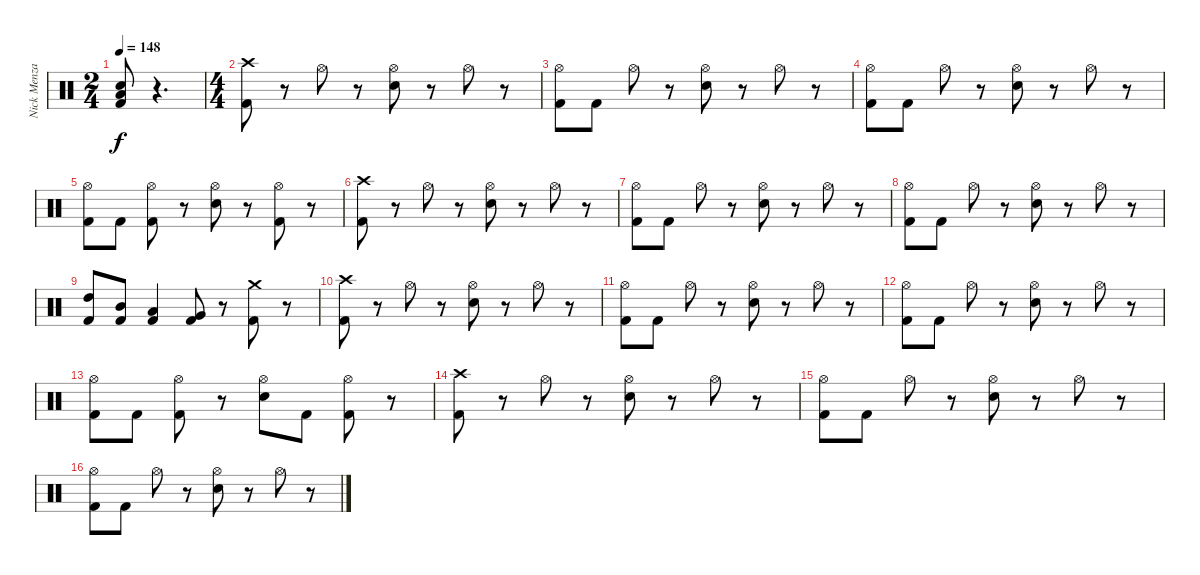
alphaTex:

\track ("Nick Menza" "Nick Menza") {instrument percussion}
\staff {score}
\articulation defaults
\ts (2 4)
\tempo 148
\clef neutral
\ks c
("Low Tom (hit)" "Electric Snare (hit)" "Kick (hit) 2").8{dy f} r.4{d} |
\ts (4 4)
("Crash high (hit)" "Kick (hit) 2").8 r.8 "Hi-Hat (open)".8 r.8 ("Hi-Hat (open)" "Electric Snare (hit)").8 r.8 "Hi-Hat (open)".8 r.8 |
("Hi-Hat (open)" "Kick (hit) 2").8 "Kick (hit) 2".8 "Hi-Hat (open)".8 r.8 ("Hi-Hat (open)" "Electric Snare (hit)").8 r.8 "Hi-Hat (open)".8 r.8 |
("Hi-Hat (open)" "Kick (hit) 2").8 "Kick (hit) 2".8 "Hi-Hat (open)".8 r.8 ("Hi-Hat (open)" "Electric Snare (hit)").8 r.8 "Hi-Hat (open)".8 r.8 |
("Hi-Hat (open)" "Kick (hit) 2").8 "Kick (hit) 2".8 ("Hi-Hat (open)" "Kick (hit) 2").8 r.8 ("Hi-Hat (open)" "Electric Snare (hit)").8 r.8 ("Hi-Hat (open)" "Kick (hit) 2").8 r.8 |
("Crash high (hit)" "Kick (hit) 2").8 r.8 "Hi-Hat (open)".8 r.8 ("Hi-Hat (open)" "Electric Snare (hit)").8 r.8 "Hi-Hat (open)".8 r.8 |
("Hi-Hat (open)" "Kick (hit) 2").8 "Kick (hit) 2".8 "Hi-Hat (open)".8 r.8 ("Hi-Hat (open)" "Electric Snare (hit)").8 r.8 "Hi-Hat (open)".8 r.8 |
("Hi-Hat (open)" "Kick (hit) 2").8 "Kick (hit) 2".8 "Hi-Hat (open)".8 r.8 ("Hi-Hat (open)" "Electric Snare (hit)").8 r.8 "Hi-Hat (open)".8 r.8 |
("High Tom (hit)" "Kick (hit) 2").8 ("Mid Tom (hit)" "Kick (hit) 2").8 ("Low Tom (hit)" "Kick (hit) 2").4 ("Very Low Tom (hit)" "Kick (hit) 2").8 r.8 ("Crash medium (hit)" "Kick (hit) 2").8 r.8 |
("Crash high (hit)" "Kick (hit) 2").8 r.8 "Hi-Hat (open)".8 r.8 ("Hi-Hat (open)" "Electric Snare (hit)").8 r.8 "Hi-Hat (open)".8 r.8 |
("Hi-Hat (open)" "Kick (hit) 2").8 "Kick (hit) 2".8 "Hi-Hat (open)".8 r.8 ("Hi-Hat (open)" "Electric Snare (hit)").8 r.8 "Hi-Hat (open)".8 r.8 |
("Hi-Hat (open)" "Kick (hit) 2").8 "Kick (hit) 2".8 "Hi-Hat (open)".8 r.8 ("Hi-Hat (open)" "Electric Snare (hit)").8 r.8 "Hi-Hat (open)".8 r.8 |
("Hi-Hat (open)" "Kick (hit) 2").8 "Kick (hit) 2".8 ("Hi-Hat (open)" "Kick (hit) 2").8 r.8 ("Hi-Hat (open)" "Electric Snare (hit)").8 "Kick (hit) 2".8 ("Hi-Hat (open)" "Kick (hit) 2").8 r.8 |
("Crash high (hit)" "Kick (hit) 2").8 r.8 "Hi-Hat (open)".8 r.8 ("Hi-Hat (open)" "Electric Snare (hit)").8 r.8 "Hi-Hat (open)".8 r.8 |
("Hi-Hat (open)" "Kick (hit) 2").8 "Kick (hit) 2".8 "Hi-Hat (open)".8 r.8 ("Hi-Hat (open)" "Electric Snare (hit)").8 r.8 "Hi-Hat (open)".8 r.8 |
("Hi-Hat (open)" "Kick (hit) 2").8 "Kick (hit) 2".8 "Hi-Hat (open)".8 r.8 ("Hi-Hat (open)" "Electric Snare (hit)").8 r.8 "Hi-Hat (open)".8 r.8
